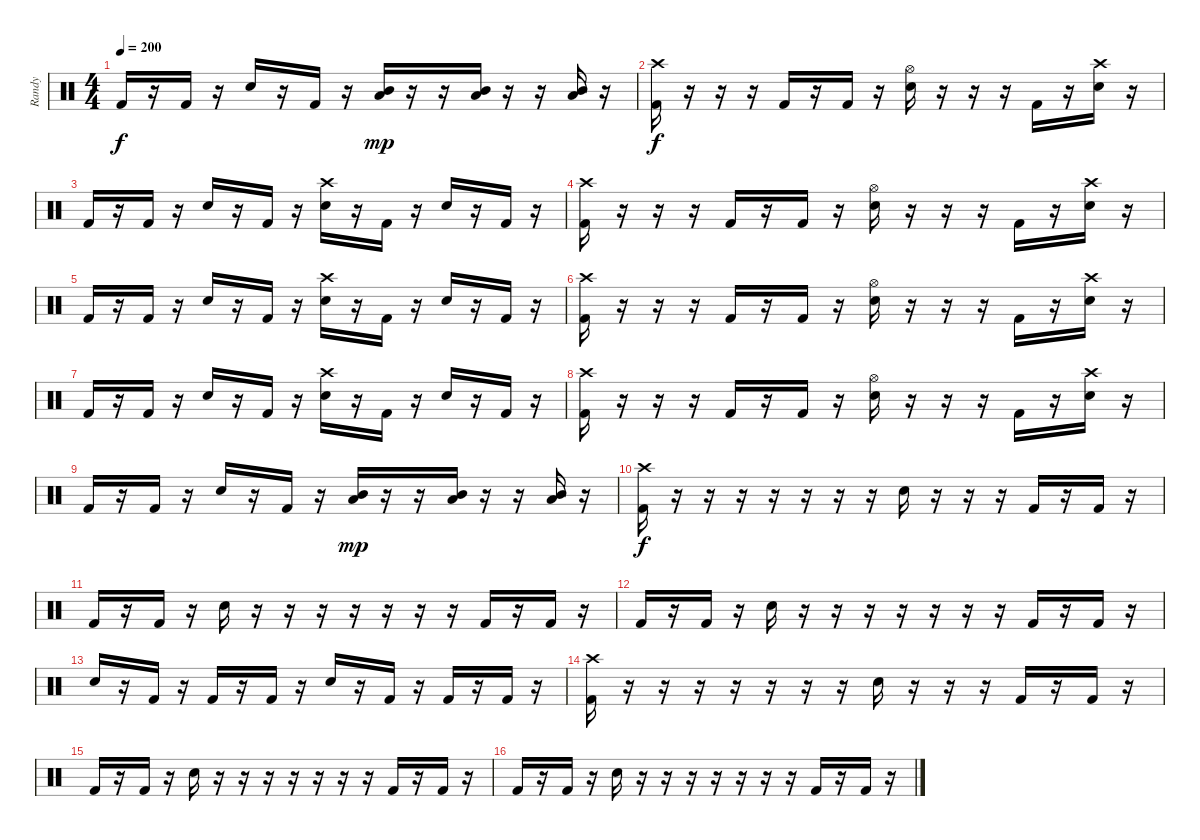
\track ("Randy" "Randy") {instrument percussion}
\staff {score}
\articulation defaults
\ts (4 4)
\tempo 200
\clef neutral
\ks c "Kick (hit) 2".16{dy f}
r.16 "Kick (hit) 2".16 r.16 "Electric Snare (hit)".16 r.16 "Kick (hit) 2".16 r.16 ("Mid Tom (hit)" "Low Tom (hit)").16{dy mp} r.16 r.16 ("Mid Tom (hit)" "Low Tom (hit)").16 r.16 r.16 ("Mid Tom (hit)" "Low Tom (hit)").16 r.16 |
("Kick (hit) 2" "Crash high (hit)").16{dy f} r.16 r.16 r.16 "Kick (hit) 2".16 r.16 "Kick (hit) 2".16 r.16 ("Electric Snare (hit)" "Hi-Hat (open)").16 r.16 r.16 r.16 "Kick (hit) 2".16 r.16 ("Electric Snare (hit)" "Crash high (hit)").16 r.16 |
"Kick (hit) 2".16 r.16 "Kick (hit) 2".16 r.16 "Electric Snare (hit)".16 r.16 "Kick (hit) 2".16 r.16 ("Electric Snare (hit)" "Crash high (hit)").16 r.16 "Kick (hit) 2".16 r.16 "Electric Snare (hit)".16 r.16 "Kick (hit) 2".16 r.16 |
("Kick (hit) 2" "Crash high (hit)").16 r.16 r.16 r.16 "Kick (hit) 2".16 r.16 "Kick (hit) 2".16 r.16 ("Electric Snare (hit)" "Hi-Hat (open)").16 r.16 r.16 r.16 "Kick (hit) 2".16 r.16 ("Electric Snare (hit)" "Crash high (hit)").16 r.16 |
"Kick (hit) 2".16 r.16 "Kick (hit) 2".16 r.16 "Electric Snare (hit)".16 r.16 "Kick (hit) 2".16 r.16 ("Electric Snare (hit)" "Crash high (hit)").16 r.16 "Kick (hit) 2".16 r.16 "Electric Snare (hit)".16 r.16 "Kick (hit) 2".16 r.16 |
("Kick (hit) 2" "Crash high (hit)").16 r.16 r.16 r.16 "Kick (hit) 2".16 r.16 "Kick (hit) 2".16 r.16 ("Electric Snare (hit)" "Hi-Hat (open)").16 r.16 r.16 r.16 "Kick (hit) 2".16 r.16 ("Electric Snare (hit)" "Crash high (hit)").16 r.16 |
"Kick (hit) 2".16 r.16 "Kick (hit) 2".16 r.16 "Electric Snare (hit)".16 r.16 "Kick (hit) 2".16 r.16 ("Electric Snare (hit)" "Crash high (hit)").16 r.16 "Kick (hit) 2".16 r.16 "Electric Snare (hit)".16 r.16 "Kick (hit) 2".16 r.16 |
("Kick (hit) 2" "Crash high (hit)").16 r.16 r.16 r.16 "Kick (hit) 2".16 r.16 "Kick (hit) 2".16 r.16 ("Electric Snare (hit)" "Hi-Hat (open)").16 r.16 r.16 r.16 "Kick (hit) 2".16 r.16 ("Electric Snare (hit)" "Crash high (hit)").16 r.16 |
"Kick (hit) 2".16 r.16 "Kick (hit) 2".16 r.16 "Electric Snare (hit)".16 r.16 "Kick (hit) 2".16 r.16 ("Mid Tom (hit)" "Low Tom (hit)").16{dy mp} r.16 r.16 ("Mid Tom (hit)" "Low Tom (hit)").16 r.16 r.16 ("Mid Tom (hit)" "Low Tom (hit)").16 r.16 |
("Kick (hit) 2" "Crash high (hit)").16{dy f} r.16 r.16 r.16 r.16 r.16 r.16 r.16 "Electric Snare (hit)".16 r.16 r.16 r.16 "Kick (hit) 2".16 r.16 "Kick (hit) 2".16 r.16 |
"Kick (hit) 2".16 r.16 "Kick (hit) 2".16 r.16 "Electric Snare (hit)".16 r.16 r.16 r.16 r.16 r.16 r.16 r.16 "Kick (hit) 2".16 r.16 "Kick (hit) 2".16 r.16 |
"Kick (hit) 2".16 r.16 "Kick (hit) 2".16 r.16 "Electric Snare (hit)".16 r.16 r.16 r.16 r.16 r.16 r.16 r.16 "Kick (hit) 2".16 r.16 "Kick (hit) 2".16 r.16 |
"Electric Snare (hit)".16 r.16 "Kick (hit) 2".16 r.16 "Kick (hit) 2".16 r.16 "Kick (hit) 2".16 r.16 "Electric Snare (hit)".16 r.16 "Kick (hit) 2".16 r.16 "Kick (hit) 2".16 r.16 "Kick (hit) 2".16 r.16 |
("Kick (hit) 2" "Crash high (hit)").16 r.16 r.16 r.16 r.16 r.16 r.16 r.16 "Electric Snare (hit)".16 r.16 r.16 r.16 "Kick (hit) 2".16 r.16 "Kick (hit) 2".16 r.16 |
"Kick (hit) 2".16 r.16 "Kick (hit) 2".16 r.16 "Electric Snare (hit)".16 r.16 r.16 r.16 r.16 r.16 r.16 r.16 "Kick (hit) 2".16 r.16 "Kick (hit) 2".16 r.16 |
"Kick (hit) 2".16 r.16 "Kick (hit) 2".16 r.16 "Electric Snare (hit)".16 r.16 r.16 r.16 r.16 r.16 r.16 r.16 "Kick (hit) 2".16 r.16 "Kick (hit) 2".16 r.16
